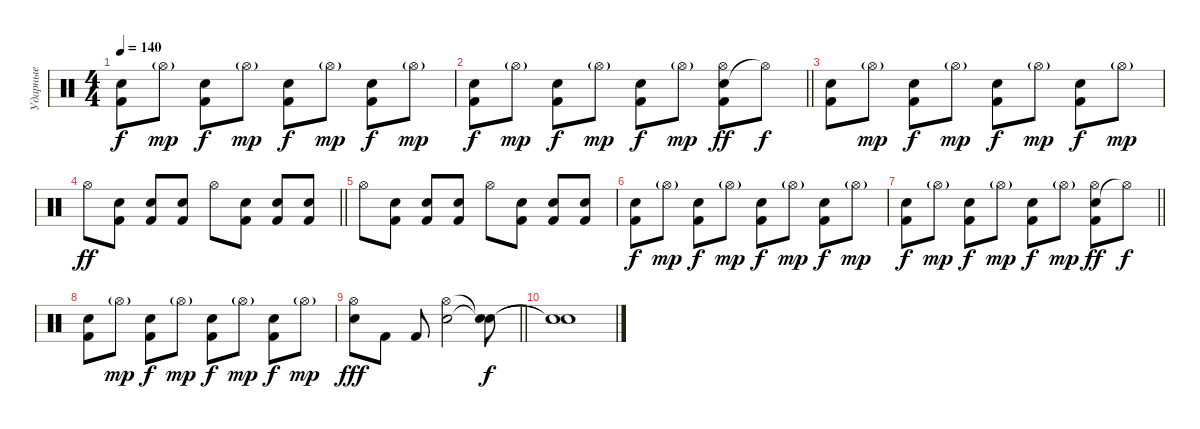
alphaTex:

\track ("Ударные" "Ударные") {instrument percussion}
\staff {score}
\articulation defaults
\ts (4 4)
\tempo 140
\clef neutral
\ks c
("Snare (hit) 2" "Kick (hit) 2").8{dy f} "Hi-Hat (open)"{g}.8{dy mp} ("Snare (hit) 2" "Kick (hit) 2").8{dy f} "Hi-Hat (open)"{g}.8{dy mp} ("Snare (hit) 2" "Kick (hit) 2").8{dy f} "Hi-Hat (open)"{g}.8{dy mp} ("Snare (hit) 2" "Kick (hit) 2").8{dy f} "Hi-Hat (open)"{g}.8{dy mp} |
\barLineRight lightlight
("Snare (hit) 2" "Kick (hit) 2").8{dy f} "Hi-Hat (open)"{g}.8{dy mp} ("Snare (hit) 2" "Kick (hit) 2").8{dy f} "Hi-Hat (open)"{g}.8{dy mp} ("Snare (hit) 2" "Kick (hit) 2").8{dy f} "Hi-Hat (open)"{g}.8{dy mp} ("Snare (hit) 2" "Hi-Hat (open)" "Kick (hit) 2").8{dy ff} "Hi-Hat (open)"{t}.8{dy f} |
("Snare (hit) 2" "Kick (hit) 2").8 "Hi-Hat (open)"{g}.8{dy mp} ("Snare (hit) 2" "Kick (hit) 2").8{dy f} "Hi-Hat (open)"{g}.8{dy mp} ("Snare (hit) 2" "Kick (hit) 2").8{dy f} "Hi-Hat (open)"{g}.8{dy mp} ("Snare (hit) 2" "Kick (hit) 2").8{dy f} "Hi-Hat (open)"{g}.8{dy mp} |
\barLineRight lightlight "Hi-Hat (open)".8{dy ff}
("Kick (hit) 2" "Electric Snare (hit)").8 ("Kick (hit) 2" "Electric Snare (hit)").8 ("Kick (hit) 2" "Electric Snare (hit)").8 "Hi-Hat (open)".8 ("Kick (hit) 2" "Electric Snare (hit)").8 ("Kick (hit) 2" "Electric Snare (hit)").8 ("Kick (hit) 2" "Electric Snare (hit)").8 |
"Hi-Hat (open)".8 ("Kick (hit) 2" "Electric Snare (hit)").8 ("Kick (hit) 2" "Electric Snare (hit)").8 ("Kick (hit) 2" "Electric Snare (hit)").8 "Hi-Hat (open)".8 ("Kick (hit) 2" "Electric Snare (hit)").8 ("Kick (hit) 2" "Electric Snare (hit)").8 ("Kick (hit) 2" "Electric Snare (hit)").8 |
("Snare (hit) 2" "Kick (hit) 2").8{dy f} "Hi-Hat (open)"{g}.8{dy mp} ("Snare (hit) 2" "Kick (hit) 2").8{dy f} "Hi-Hat (open)"{g}.8{dy mp} ("Snare (hit) 2" "Kick (hit) 2").8{dy f} "Hi-Hat (open)"{g}.8{dy mp} ("Snare (hit) 2" "Kick (hit) 2").8{dy f} "Hi-Hat (open)"{g}.8{dy mp} |
\barLineRight lightlight
("Snare (hit) 2" "Kick (hit) 2").8{dy f} "Hi-Hat (open)"{g}.8{dy mp} ("Snare (hit) 2" "Kick (hit) 2").8{dy f} "Hi-Hat (open)"{g}.8{dy mp} ("Snare (hit) 2" "Kick (hit) 2").8{dy f} "Hi-Hat (open)"{g}.8{dy mp} ("Snare (hit) 2" "Hi-Hat (open)" "Kick (hit) 2").8{dy ff} "Hi-Hat (open)"{t}.8{dy f} |
("Snare (hit) 2" "Kick (hit) 2").8 "Hi-Hat (open)"{g}.8{dy mp} ("Snare (hit) 2" "Kick (hit) 2").8{dy f} "Hi-Hat (open)"{g}.8{dy mp} ("Snare (hit) 2" "Kick (hit) 2").8{dy f} "Hi-Hat (open)"{g}.8{dy mp} ("Snare (hit) 2" "Kick (hit) 2").8{dy f} "Hi-Hat (open)"{g}.8{dy mp} |
\barLineRight lightlight
("Hi-Hat (open)" "Electric Snare (hit)").8{dy fff} "Kick (hit) 2".8 "Kick (hit) 2".8 ("Hi-Hat (open)" "Electric Snare (hit)").2 ("Snare (hit)"{t} "Snare (hit)"{t}).8{dy f} |
("Snare (hit)"{t} "Snare (hit)"{t}).1
